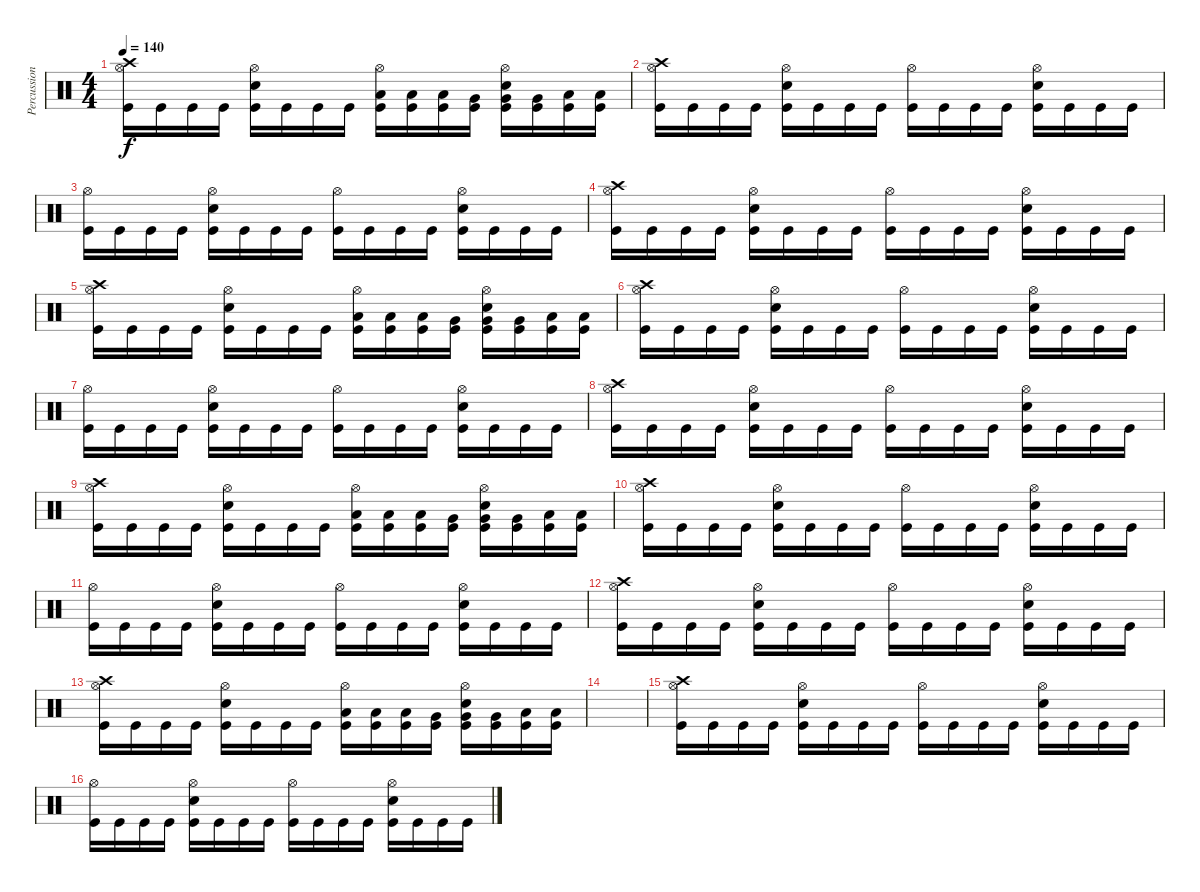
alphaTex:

\track ("Percussion" "Percussion") {instrument percussion}
\staff {score}
\articulation defaults
\ts (4 4)
\tempo 140
\clef neutral
\ks c
("Crash high (hit)" "Hi-Hat (open)" "Kick (hit)").16{dy f} "Kick (hit)".16 "Kick (hit)".16 "Kick (hit)".16 ("Hi-Hat (open)" "Electric Snare (hit)" "Kick (hit)").16 "Kick (hit)".16 "Kick (hit)".16 "Kick (hit)".16 ("Low Tom (hit)" "Hi-Hat (open)" "Kick (hit)").16 ("Low Tom (hit)" "Kick (hit)").16 ("Low Tom (hit)" "Kick (hit)").16 ("Very Low Tom (hit)" "Kick (hit)").16 ("Very Low Tom (hit)" "Hi-Hat (open)" "Electric Snare (hit)" "Kick (hit)").16 ("Very Low Tom (hit)" "Kick (hit)").16 ("Low Floor Tom (hit)" "Kick (hit)").16 ("Low Floor Tom (hit)" "Kick (hit)").16 |
("Crash high (hit)" "Hi-Hat (open)" "Kick (hit)").16 "Kick (hit)".16 "Kick (hit)".16 "Kick (hit)".16 ("Hi-Hat (open)" "Electric Snare (hit)" "Kick (hit)").16 "Kick (hit)".16 "Kick (hit)".16 "Kick (hit)".16 ("Hi-Hat (open)" "Kick (hit)").16 "Kick (hit)".16 "Kick (hit)".16 "Kick (hit)".16 ("Hi-Hat (open)" "Electric Snare (hit)" "Kick (hit)").16 "Kick (hit)".16 "Kick (hit)".16 "Kick (hit)".16 |
("Hi-Hat (open)" "Kick (hit)").16 "Kick (hit)".16 "Kick (hit)".16 "Kick (hit)".16 ("Hi-Hat (open)" "Electric Snare (hit)" "Kick (hit)").16 "Kick (hit)".16 "Kick (hit)".16 "Kick (hit)".16 ("Hi-Hat (open)" "Kick (hit)").16 "Kick (hit)".16 "Kick (hit)".16 "Kick (hit)".16 ("Hi-Hat (open)" "Electric Snare (hit)" "Kick (hit)").16 "Kick (hit)".16 "Kick (hit)".16 "Kick (hit)".16 |
("Crash high (hit)" "Hi-Hat (open)" "Kick (hit)").16 "Kick (hit)".16 "Kick (hit)".16 "Kick (hit)".16 ("Hi-Hat (open)" "Electric Snare (hit)" "Kick (hit)").16 "Kick (hit)".16 "Kick (hit)".16 "Kick (hit)".16 ("Hi-Hat (open)" "Kick (hit)").16 "Kick (hit)".16 "Kick (hit)".16 "Kick (hit)".16 ("Hi-Hat (open)" "Electric Snare (hit)" "Kick (hit)").16 "Kick (hit)".16 "Kick (hit)".16 "Kick (hit)".16 |
("Crash high (hit)" "Hi-Hat (open)" "Kick (hit)").16 "Kick (hit)".16 "Kick (hit)".16 "Kick (hit)".16 ("Hi-Hat (open)" "Electric Snare (hit)" "Kick (hit)").16 "Kick (hit)".16 "Kick (hit)".16 "Kick (hit)".16 ("Low Tom (hit)" "Hi-Hat (open)" "Kick (hit)").16 ("Low Tom (hit)" "Kick (hit)").16 ("Low Tom (hit)" "Kick (hit)").16 ("Very Low Tom (hit)" "Kick (hit)").16 ("Very Low Tom (hit)" "Hi-Hat (open)" "Electric Snare (hit)" "Kick (hit)").16 ("Very Low Tom (hit)" "Kick (hit)").16 ("Low Floor Tom (hit)" "Kick (hit)").16 ("Low Floor Tom (hit)" "Kick (hit)").16 |
("Crash high (hit)" "Hi-Hat (open)" "Kick (hit)").16 "Kick (hit)".16 "Kick (hit)".16 "Kick (hit)".16 ("Hi-Hat (open)" "Electric Snare (hit)" "Kick (hit)").16 "Kick (hit)".16 "Kick (hit)".16 "Kick (hit)".16 ("Hi-Hat (open)" "Kick (hit)").16 "Kick (hit)".16 "Kick (hit)".16 "Kick (hit)".16 ("Hi-Hat (open)" "Electric Snare (hit)" "Kick (hit)").16 "Kick (hit)".16 "Kick (hit)".16 "Kick (hit)".16 |
("Hi-Hat (open)" "Kick (hit)").16 "Kick (hit)".16 "Kick (hit)".16 "Kick (hit)".16 ("Hi-Hat (open)" "Electric Snare (hit)" "Kick (hit)").16 "Kick (hit)".16 "Kick (hit)".16 "Kick (hit)".16 ("Hi-Hat (open)" "Kick (hit)").16 "Kick (hit)".16 "Kick (hit)".16 "Kick (hit)".16 ("Hi-Hat (open)" "Electric Snare (hit)" "Kick (hit)").16 "Kick (hit)".16 "Kick (hit)".16 "Kick (hit)".16 |
("Crash high (hit)" "Hi-Hat (open)" "Kick (hit)").16 "Kick (hit)".16 "Kick (hit)".16 "Kick (hit)".16 ("Hi-Hat (open)" "Electric Snare (hit)" "Kick (hit)").16 "Kick (hit)".16 "Kick (hit)".16 "Kick (hit)".16 ("Hi-Hat (open)" "Kick (hit)").16 "Kick (hit)".16 "Kick (hit)".16 "Kick (hit)".16 ("Hi-Hat (open)" "Electric Snare (hit)" "Kick (hit)").16 "Kick (hit)".16 "Kick (hit)".16 "Kick (hit)".16 |
("Crash high (hit)" "Hi-Hat (open)" "Kick (hit)").16 "Kick (hit)".16 "Kick (hit)".16 "Kick (hit)".16 ("Hi-Hat (open)" "Electric Snare (hit)" "Kick (hit)").16 "Kick (hit)".16 "Kick (hit)".16 "Kick (hit)".16 ("Low Tom (hit)" "Hi-Hat (open)" "Kick (hit)").16 ("Low Tom (hit)" "Kick (hit)").16 ("Low Tom (hit)" "Kick (hit)").16 ("Very Low Tom (hit)" "Kick (hit)").16 ("Very Low Tom (hit)" "Hi-Hat (open)" "Electric Snare (hit)" "Kick (hit)").16 ("Very Low Tom (hit)" "Kick (hit)").16 ("Low Floor Tom (hit)" "Kick (hit)").16 ("Low Floor Tom (hit)" "Kick (hit)").16 |
("Crash high (hit)" "Hi-Hat (open)" "Kick (hit)").16 "Kick (hit)".16 "Kick (hit)".16 "Kick (hit)".16 ("Hi-Hat (open)" "Electric Snare (hit)" "Kick (hit)").16 "Kick (hit)".16 "Kick (hit)".16 "Kick (hit)".16 ("Hi-Hat (open)" "Kick (hit)").16 "Kick (hit)".16 "Kick (hit)".16 "Kick (hit)".16 ("Hi-Hat (open)" "Electric Snare (hit)" "Kick (hit)").16 "Kick (hit)".16 "Kick (hit)".16 "Kick (hit)".16 |
("Hi-Hat (open)" "Kick (hit)").16 "Kick (hit)".16 "Kick (hit)".16 "Kick (hit)".16 ("Hi-Hat (open)" "Electric Snare (hit)" "Kick (hit)").16 "Kick (hit)".16 "Kick (hit)".16 "Kick (hit)".16 ("Hi-Hat (open)" "Kick (hit)").16 "Kick (hit)".16 "Kick (hit)".16 "Kick (hit)".16 ("Hi-Hat (open)" "Electric Snare (hit)" "Kick (hit)").16 "Kick (hit)".16 "Kick (hit)".16 "Kick (hit)".16 |
("Crash high (hit)" "Hi-Hat (open)" "Kick (hit)").16 "Kick (hit)".16 "Kick (hit)".16 "Kick (hit)".16 ("Hi-Hat (open)" "Electric Snare (hit)" "Kick (hit)").16 "Kick (hit)".16 "Kick (hit)".16 "Kick (hit)".16 ("Hi-Hat (open)" "Kick (hit)").16 "Kick (hit)".16 "Kick (hit)".16 "Kick (hit)".16 ("Hi-Hat (open)" "Electric Snare (hit)" "Kick (hit)").16 "Kick (hit)".16 "Kick (hit)".16 "Kick (hit)".16 |
("Crash high (hit)" "Hi-Hat (open)" "Kick (hit)").16 "Kick (hit)".16 "Kick (hit)".16 "Kick (hit)".16 ("Hi-Hat (open)" "Electric Snare (hit)" "Kick (hit)").16 "Kick (hit)".16 "Kick (hit)".16 "Kick (hit)".16 ("Low Tom (hit)" "Hi-Hat (open)" "Kick (hit)").16 ("Low Tom (hit)" "Kick (hit)").16 ("Low Tom (hit)" "Kick (hit)").16 ("Very Low Tom (hit)" "Kick (hit)").16 ("Very Low Tom (hit)" "Hi-Hat (open)" "Electric Snare (hit)" "Kick (hit)").16 ("Very Low Tom (hit)" "Kick (hit)").16 ("Low Floor Tom (hit)" "Kick (hit)").16 ("Low Floor Tom (hit)" "Kick (hit)").16 |
|
("Crash high (hit)" "Hi-Hat (open)" "Kick (hit)").16 "Kick (hit)".16 "Kick (hit)".16 "Kick (hit)".16 ("Hi-Hat (open)" "Electric Snare (hit)" "Kick (hit)").16 "Kick (hit)".16 "Kick (hit)".16 "Kick (hit)".16 ("Hi-Hat (open)" "Kick (hit)").16 "Kick (hit)".16 "Kick (hit)".16 "Kick (hit)".16 ("Hi-Hat (open)" "Electric Snare (hit)" "Kick (hit)").16 "Kick (hit)".16 "Kick (hit)".16 "Kick (hit)".16 |
("Hi-Hat (open)" "Kick (hit)").16 "Kick (hit)".16 "Kick (hit)".16 "Kick (hit)".16 ("Hi-Hat (open)" "Electric Snare (hit)" "Kick (hit)").16 "Kick (hit)".16 "Kick (hit)".16 "Kick (hit)".16 ("Hi-Hat (open)" "Kick (hit)").16 "Kick (hit)".16 "Kick (hit)".16 "Kick (hit)".16 ("Hi-Hat (open)" "Electric Snare (hit)" "Kick (hit)").16 "Kick (hit)".16 "Kick (hit)".16 "Kick (hit)".16
